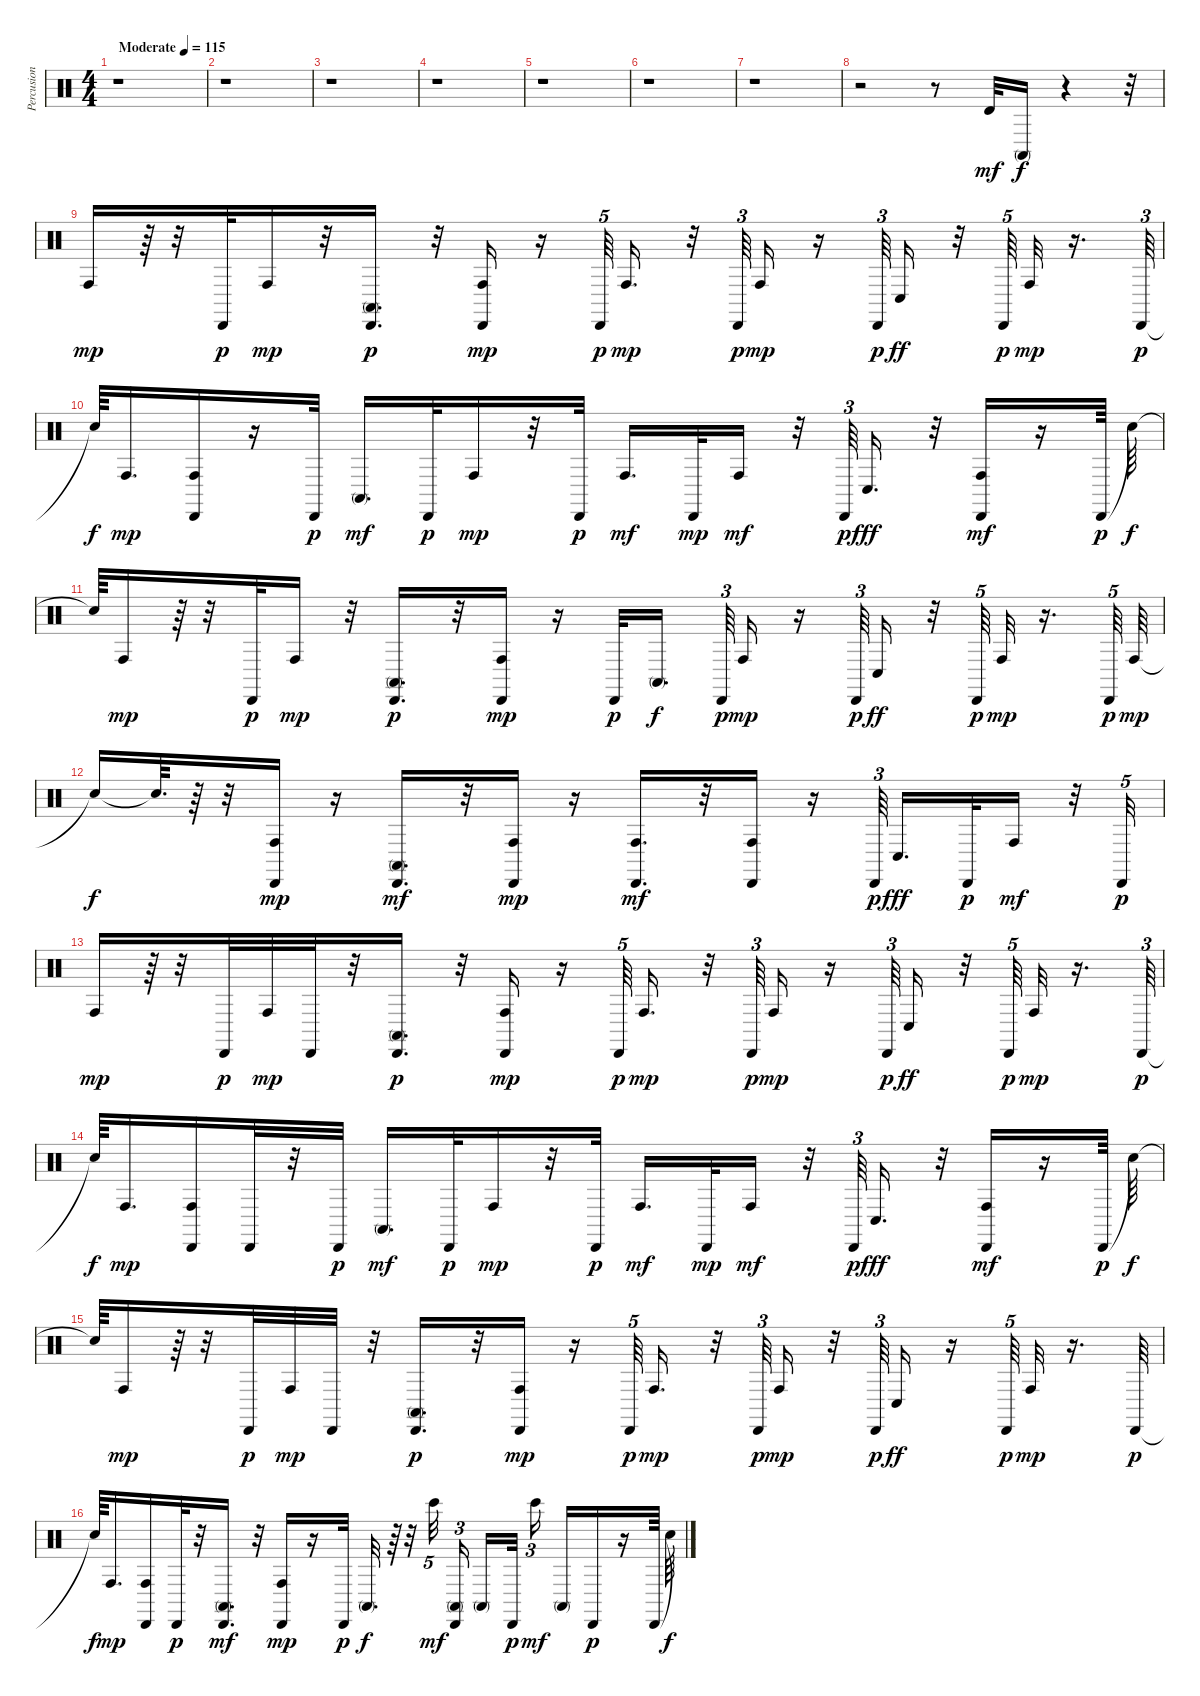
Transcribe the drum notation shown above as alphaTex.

\track ("Percusion" "Percusion") {instrument percussion}
\staff {score}
\articulation defaults
\ts (4 4)
\tempo (115 "Moderate")
\clef neutral
\ks c
r.1{dy mf} |
r.1 |
r.1 |
r.1 |
r.1 |
r.1 |
r.1 |
r.2 r.8 "Timbale high (hit)".32 "Conga high (mute)".16{dy f} r.4 r.32 |
"Conga high (hit)".16{dy mp} r.64 r.32 "Cabasa (hit)".32{dy p} "Conga high (hit)".16{dy mp} r.32 ("Cabasa (hit)" "Conga high (mute)").16{d dy p} r.32 ("Cabasa (hit)" "Conga high (hit)").16{dy mp} r.16 "Cabasa (hit)".64{tu (5 4) dy p} "Conga high (hit)".16{d dy mp} r.32 "Cabasa (hit)".64{tu (3 2) dy p} "Conga high (hit)".16{dy mp} r.16 "Cabasa (hit)".64{tu (3 2) dy p} "Conga low (hit)".16{dy ff} r.32 "Cabasa (hit)".64{tu (5 4) dy p} "Conga high (hit)".32{dy mp} r.16{d} "Cabasa (hit)".64{tu (3 2) dy p} |
"Snare (hit)"{t}.64{dy f} "Conga high (hit)".16{d dy mp} ("Cabasa (hit)" "Conga high (hit)").16 r.16 "Cabasa (hit)".32{dy p} "Conga high (mute)".16{d dy mf} "Cabasa (hit)".32{dy p} "Conga high (hit)".16{dy mp} r.32 "Cabasa (hit)".32{dy p} "Conga high (hit)".16{d dy mf} "Cabasa (hit)".32{dy mp} "Conga high (hit)".16{dy mf} r.32 "Cabasa (hit)".64{tu (3 2) dy p} "Conga low (hit)".16{d dy fff} r.32 ("Cabasa (hit)" "Conga high (hit)").16{dy mf} r.16 "Cabasa (hit)".64{dy p} "Snare (hit)"{t}.64{dy f} |
"Snare (hit)"{t}.64 "Conga high (hit)".16{dy mp} r.64 r.32 "Cabasa (hit)".32{dy p} "Conga high (hit)".16{dy mp} r.32 ("Cabasa (hit)" "Conga high (mute)").16{d dy p} r.32 ("Cabasa (hit)" "Conga high (hit)").16{dy mp} r.16 "Cabasa (hit)".32{dy p} "Conga high (mute)".16{d dy f beam splitsecondary} "Cabasa (hit)".64{tu (3 2) dy p} "Conga high (hit)".16{dy mp} r.16 "Cabasa (hit)".64{tu (3 2) dy p} "Conga low (hit)".16{dy ff} r.32 "Cabasa (hit)".64{tu (5 4) dy p} "Conga high (hit)".32{dy mp} r.16{d} "Cabasa (hit)".64{tu (5 4) dy p} "Conga high (hit)".64{dy mp} |
"Snare (hit)"{t}.16{dy f} "Snare (hit)"{t}.64{d} r.64 r.32 ("Cabasa (hit)" "Conga high (hit)").16{dy mp} r.16 ("Cabasa (hit)" "Conga high (mute)").16{d dy mf} r.32 ("Cabasa (hit)" "Conga high (hit)").16{dy mp} r.16 ("Cabasa (hit)" "Conga high (hit)").16{d dy mf} r.32 ("Cabasa (hit)" "Conga high (hit)").16 r.16 "Cabasa (hit)".64{tu (3 2) dy p beam splitsecondary} "Conga low (hit)".16{d dy fff} "Cabasa (hit)".32{dy p} "Conga high (hit)".16{dy mf} r.32 "Cabasa (hit)".32{tu (5 4) dy p} |
"Conga high (hit)".16{dy mp} r.64 r.32 "Cabasa (hit)".32{dy p} "Conga high (hit)".32{dy mp} "Cabasa (hit)".32 r.32 ("Cabasa (hit)" "Conga high (mute)").16{d dy p} r.32 ("Cabasa (hit)" "Conga high (hit)").16{dy mp} r.16 "Cabasa (hit)".64{tu (5 4) dy p} "Conga high (hit)".16{d dy mp} r.32 "Cabasa (hit)".64{tu (3 2) dy p} "Conga high (hit)".16{dy mp} r.16 "Cabasa (hit)".64{tu (3 2) dy p} "Conga low (hit)".16{dy ff} r.32 "Cabasa (hit)".64{tu (5 4) dy p} "Conga high (hit)".32{dy mp} r.16{d} "Cabasa (hit)".64{tu (3 2) dy p} |
"Snare (hit)"{t}.64{dy f} "Conga high (hit)".16{d dy mp} ("Cabasa (hit)" "Conga high (hit)").16 "Cabasa (hit)".32 r.32 "Cabasa (hit)".32{dy p} "Conga high (mute)".16{d dy mf} "Cabasa (hit)".32{dy p} "Conga high (hit)".16{dy mp} r.32 "Cabasa (hit)".32{dy p} "Conga high (hit)".16{d dy mf} "Cabasa (hit)".32{dy mp} "Conga high (hit)".16{dy mf} r.32 "Cabasa (hit)".64{tu (3 2) dy p} "Conga low (hit)".16{d dy fff} r.32 ("Cabasa (hit)" "Conga high (hit)").16{dy mf} r.16 "Cabasa (hit)".64{dy p} "Snare (hit)"{t}.64{dy f} |
"Snare (hit)"{t}.64 "Conga high (hit)".16{dy mp} r.64 r.32 "Cabasa (hit)".32{dy p} "Conga high (hit)".32{dy mp} "Cabasa (hit)".32 r.32 ("Cabasa (hit)" "Conga high (mute)").16{d dy p} r.32 ("Cabasa (hit)" "Conga high (hit)").16{dy mp} r.16 "Cabasa (hit)".64{tu (5 4) dy p} "Conga high (hit)".16{d dy mp} r.32 "Cabasa (hit)".64{tu (3 2) dy p} "Conga high (hit)".16{dy mp} r.32 "Cabasa (hit)".64{tu (3 2) dy p} "Conga low (hit)".16{dy ff} r.16 "Cabasa (hit)".64{tu (5 4) dy p} "Conga high (hit)".32{dy mp} r.16{d} "Cabasa (hit)".64{dy p} |
"Snare (hit)"{t}.64{dy f} "Conga high (hit)".16{d dy mp} ("Cabasa (hit)" "Conga high (hit)").16 "Cabasa (hit)".32{dy p} r.32 ("Cabasa (hit)" "Conga high (mute)").16{d dy mf} r.32 ("Cabasa (hit)" "Conga high (hit)").16{dy mp} r.16 "Cabasa (hit)".32{dy p} "Conga high (mute)".32{d dy f} r.64 r.32 "Bongo High (hit)".32{tu (5 4) dy mf} ("Cabasa (hit)" "Conga high (mute)").16{tu (3 2) beam splitsecondary} "Conga high (mute)".16 "Cabasa (hit)".32{dy p} "Bongo High (hit)".16{tu (3 2) dy mf beam splitsecondary} "Conga high (mute)".16 "Cabasa (hit)".16{dy p} r.16 "Cabasa (hit)".64 "Snare (hit)"{t}.64{dy f}
